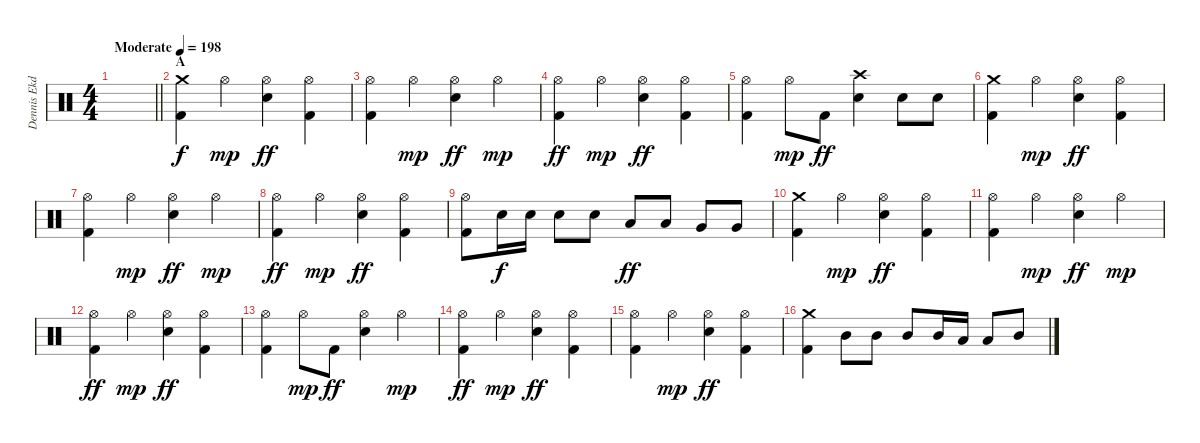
\track ("Dennis Ekdahl      (Drums)" "Dennis Ekd") {instrument percussion}
\staff {score}
\articulation defaults
\ts (4 4)
\tempo (198 "Moderate")
\clef neutral
\barLineRight lightlight
\ks c
|
\section ("" "A")
("Crash medium (hit)" "Kick (hit) 2").4 "Hi-Hat (open)".4{dy mp} ("Hi-Hat (open)" "Electric Snare (hit)").4{dy ff} ("Hi-Hat (open)" "Kick (hit) 2").4 |
("Hi-Hat (open)" "Kick (hit) 2").4 "Hi-Hat (open)".4{dy mp} ("Hi-Hat (open)" "Electric Snare (hit)").4{dy ff} "Hi-Hat (open)".4{dy mp} |
("Hi-Hat (open)" "Kick (hit) 2").4{dy ff} "Hi-Hat (open)".4{dy mp} ("Hi-Hat (open)" "Electric Snare (hit)").4{dy ff} ("Hi-Hat (open)" "Kick (hit) 2").4 |
("Hi-Hat (open)" "Kick (hit) 2").4 "Hi-Hat (open)".8{dy mp} "Kick (hit) 2".8{dy ff} ("Crash high (hit)" "Electric Snare (hit)").4 "Electric Snare (hit)".8 "Electric Snare (hit)".8 |
("Crash medium (hit)" "Kick (hit) 2").4 "Hi-Hat (open)".4{dy mp} ("Hi-Hat (open)" "Electric Snare (hit)").4{dy ff} ("Hi-Hat (open)" "Kick (hit) 2").4 |
("Hi-Hat (open)" "Kick (hit) 2").4 "Hi-Hat (open)".4{dy mp} ("Hi-Hat (open)" "Electric Snare (hit)").4{dy ff} "Hi-Hat (open)".4{dy mp} |
("Hi-Hat (open)" "Kick (hit) 2").4{dy ff} "Hi-Hat (open)".4{dy mp} ("Hi-Hat (open)" "Electric Snare (hit)").4{dy ff} ("Hi-Hat (open)" "Kick (hit) 2").4 |
("Hi-Hat (open)" "Kick (hit) 2").8 "Electric Snare (hit)".16{dy f} "Electric Snare (hit)".16 "Electric Snare (hit)".8 "Electric Snare (hit)".8 "Low Tom (hit)".8{dy ff} "Low Tom (hit)".8 "Very Low Tom (hit)".8 "Very Low Tom (hit)".8 |
("Crash medium (hit)" "Kick (hit) 2").4 "Hi-Hat (open)".4{dy mp} ("Hi-Hat (open)" "Electric Snare (hit)").4{dy ff} ("Hi-Hat (open)" "Kick (hit) 2").4 |
("Hi-Hat (open)" "Kick (hit) 2").4 "Hi-Hat (open)".4{dy mp} ("Hi-Hat (open)" "Electric Snare (hit)").4{dy ff} "Hi-Hat (open)".4{dy mp} |
("Hi-Hat (open)" "Kick (hit) 2").4{dy ff} "Hi-Hat (open)".4{dy mp} ("Hi-Hat (open)" "Electric Snare (hit)").4{dy ff} ("Hi-Hat (open)" "Kick (hit) 2").4 |
("Hi-Hat (open)" "Kick (hit) 2").4 "Hi-Hat (open)".8{dy mp} "Kick (hit) 2".8{dy ff} ("Hi-Hat (open)" "Electric Snare (hit)").4 "Hi-Hat (open)".4{dy mp} |
("Hi-Hat (open)" "Kick (hit) 2").4{dy ff} "Hi-Hat (open)".4{dy mp} ("Hi-Hat (open)" "Electric Snare (hit)").4{dy ff} ("Hi-Hat (open)" "Kick (hit) 2").4 |
("Hi-Hat (open)" "Kick (hit) 2").4 "Hi-Hat (open)".4{dy mp} ("Hi-Hat (open)" "Electric Snare (hit)").4{dy ff} ("Hi-Hat (open)" "Kick (hit) 2").4 |
("Crash medium (hit)" "Kick (hit) 2").4 "Mid Tom (hit)".8 "Mid Tom (hit)".8 "Mid Tom (hit)".8 "Mid Tom (hit)".16 "Low Tom (hit)".16 "Low Tom (hit)".8 "Mid Tom (hit)".8
